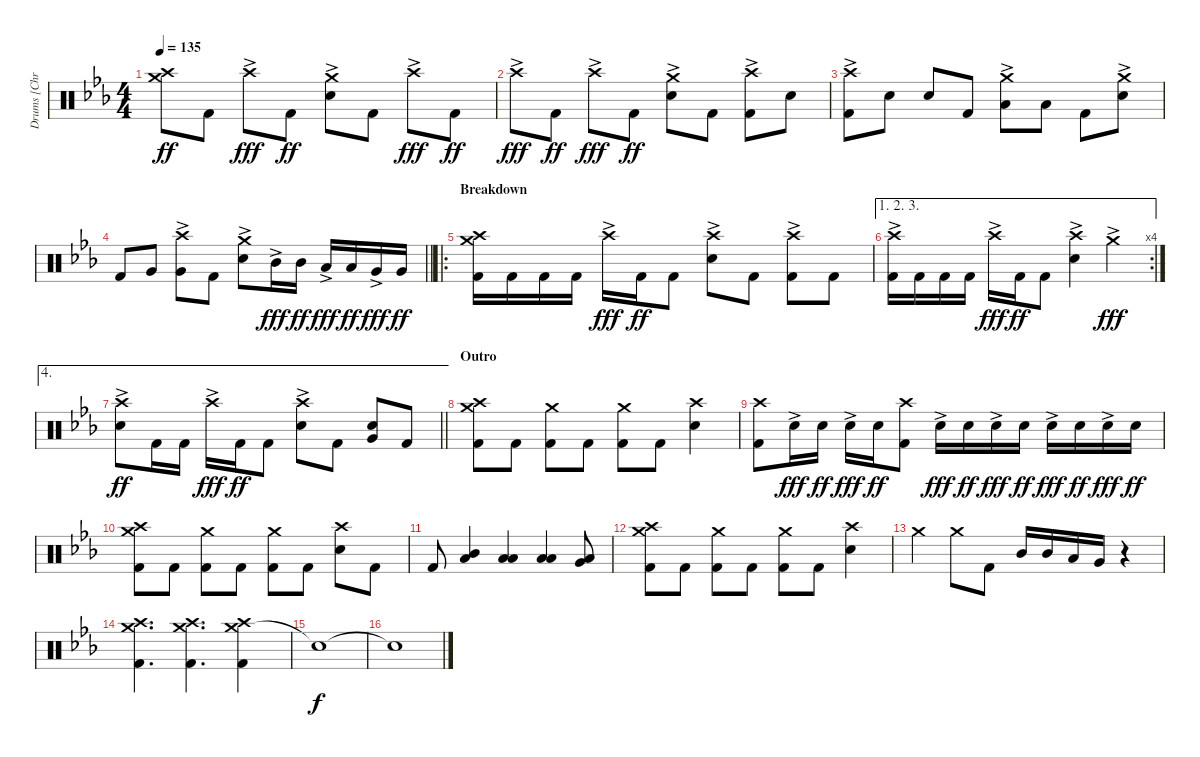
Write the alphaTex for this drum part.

\track ("Drums [Chris Hornbrook]" "Drums [Chr") {instrument percussion}
\staff {score}
\articulation defaults
\ts (4 4)
\tempo 135
\clef neutral
\ks cminor
("Crash medium (hit)" "Crash high (hit)").8{dy ff} "Kick (hit) 2".8 "Crash high (hit)"{ac}.8{dy fff} "Kick (hit) 2".8{dy ff} ("Crash medium (hit)"{ac} "Electric Snare (hit)").8 "Kick (hit) 2".8 "Crash high (hit)"{ac}.8{dy fff} "Kick (hit) 2".8{dy ff} |
"Crash high (hit)"{ac}.8{dy fff} "Kick (hit) 2".8{dy ff} "Crash high (hit)"{ac}.8{dy fff} "Kick (hit) 2".8{dy ff} ("Crash medium (hit)"{ac} "Electric Snare (hit)").8 "Kick (hit) 2".8 ("Crash high (hit)"{ac} "Kick (hit) 2").8 "Electric Snare (hit)".8 |
("Crash high (hit)"{ac} "Kick (hit) 2").8 "Electric Snare (hit)".8 "Electric Snare (hit)".8 "Kick (hit) 2".8 ("Crash medium (hit)"{ac} "Low Tom (hit)").8 "Low Tom (hit)".8 "Kick (hit) 2".8 ("Crash medium (hit)"{ac} "Electric Snare (hit)").8 |
\barLineRight lightlight "Kick (hit) 2".8 "Very Low Tom (hit)".8
("Crash high (hit)"{ac} "Very Low Tom (hit)").8 "Kick (hit) 2".8 ("Crash medium (hit)"{ac} "Electric Snare (hit)").8 "Mid Tom (hit)"{ac}.16{dy fff} "Mid Tom (hit)".16{dy ff} "Low Tom (hit)"{ac}.16{dy fff} "Low Tom (hit)".16{dy ff} "Very Low Tom (hit)"{ac}.16{dy fff} "Very Low Tom (hit)".16{dy ff} |
\ro
\section ("" "Breakdown")
("Crash medium (hit)" "Crash high (hit)" "Kick (hit) 2").16 "Kick (hit) 2".16 "Kick (hit) 2".16 "Kick (hit) 2".16 "Crash high (hit)"{ac}.16{dy fff} "Kick (hit) 2".16{dy ff} "Kick (hit) 2".8 ("Crash high (hit)"{ac} "Electric Snare (hit)").8 "Kick (hit) 2".8 ("Crash high (hit)"{ac} "Kick (hit) 2").8 "Kick (hit) 2".8 |
\ae (1 2 3)
\rc 4
("Crash high (hit)"{ac} "Kick (hit) 2").16 "Kick (hit) 2".16 "Kick (hit) 2".16 "Kick (hit) 2".16 "Crash high (hit)"{ac}.16{dy fff} "Kick (hit) 2".16{dy ff} "Kick (hit) 2".8 ("Crash high (hit)"{ac} "Electric Snare (hit)").4 "Crash medium (hit)"{ac}.4{dy fff} |
\ae 4
\barLineRight lightlight
("Crash high (hit)"{ac} "Electric Snare (hit)").8{dy ff} "Kick (hit) 2".16 "Kick (hit) 2".16 "Crash high (hit)"{ac}.16{dy fff} "Kick (hit) 2".16{dy ff} "Kick (hit) 2".8 ("Crash high (hit)"{ac} "Electric Snare (hit)").8 "Kick (hit) 2".8 ("Very Low Tom (hit)" "Electric Snare (hit)").8{bu 60} "Kick (hit) 2".8 |
\section ("" "Outro")
("Crash medium (hit)" "Crash high (hit)" "Kick (hit) 2").8 "Kick (hit) 2".8 ("Crash medium (hit)" "Kick (hit) 2").8 "Kick (hit) 2".8 ("Crash medium (hit)" "Kick (hit) 2").8 "Kick (hit) 2".8 ("Crash high (hit)" "Electric Snare (hit)").4 |
("Crash high (hit)" "Kick (hit) 2").8 "Electric Snare (hit)"{ac}.16{dy fff} "Electric Snare (hit)".16{dy ff} "Electric Snare (hit)"{ac}.16{dy fff} "Electric Snare (hit)".16{dy ff} ("Crash high (hit)" "Kick (hit) 2").8 "Electric Snare (hit)"{ac}.16{dy fff} "Electric Snare (hit)".16{dy ff} "Electric Snare (hit)"{ac}.16{dy fff} "Electric Snare (hit)".16{dy ff} "Electric Snare (hit)"{ac}.16{dy fff} "Electric Snare (hit)".16{dy ff} "Electric Snare (hit)"{ac}.16{dy fff} "Electric Snare (hit)".16{dy ff} |
("Crash medium (hit)" "Crash high (hit)" "Kick (hit) 2").8 "Kick (hit) 2".8 ("Crash medium (hit)" "Kick (hit) 2").8 "Kick (hit) 2".8 ("Crash medium (hit)" "Kick (hit) 2").8 "Kick (hit) 2".8 ("Crash high (hit)" "Electric Snare (hit)").8 "Kick (hit) 2".8 |
"Kick (hit) 2".8 ("Mid Tom (hit)" "Low Tom (hit)").4{bu 60} ("Low Tom (hit)" "Low Tom (hit)").4{bu 60} ("Low Tom (hit)" "Low Tom (hit)").4{bu 60} ("Very Low Tom (hit)" "Low Floor Tom (hit)").8{bu 60} |
("Crash medium (hit)" "Crash high (hit)" "Kick (hit) 2").8 "Kick (hit) 2".8 ("Crash medium (hit)" "Kick (hit) 2").8 "Kick (hit) 2".8 ("Crash medium (hit)" "Kick (hit) 2").8 "Kick (hit) 2".8 ("Crash high (hit)" "Electric Snare (hit)").4 |
"Crash medium (hit)".4 "Crash medium (hit)".8 "Kick (hit) 2".8 "Mid Tom (hit)".16 "Mid Tom (hit)".16 "Low Tom (hit)".16 "Very Low Tom (hit)".16 r.4 |
("Crash medium (hit)" "Crash high (hit)" "Kick (hit) 2").4{d} ("Crash medium (hit)" "Crash high (hit)" "Kick (hit) 2").4{d} ("Crash medium (hit)" "Crash high (hit)" "Kick (hit) 2").4 |
"Snare (hit)"{t}.1{dy f volume 0} |
"Snare (hit)"{t}.1
